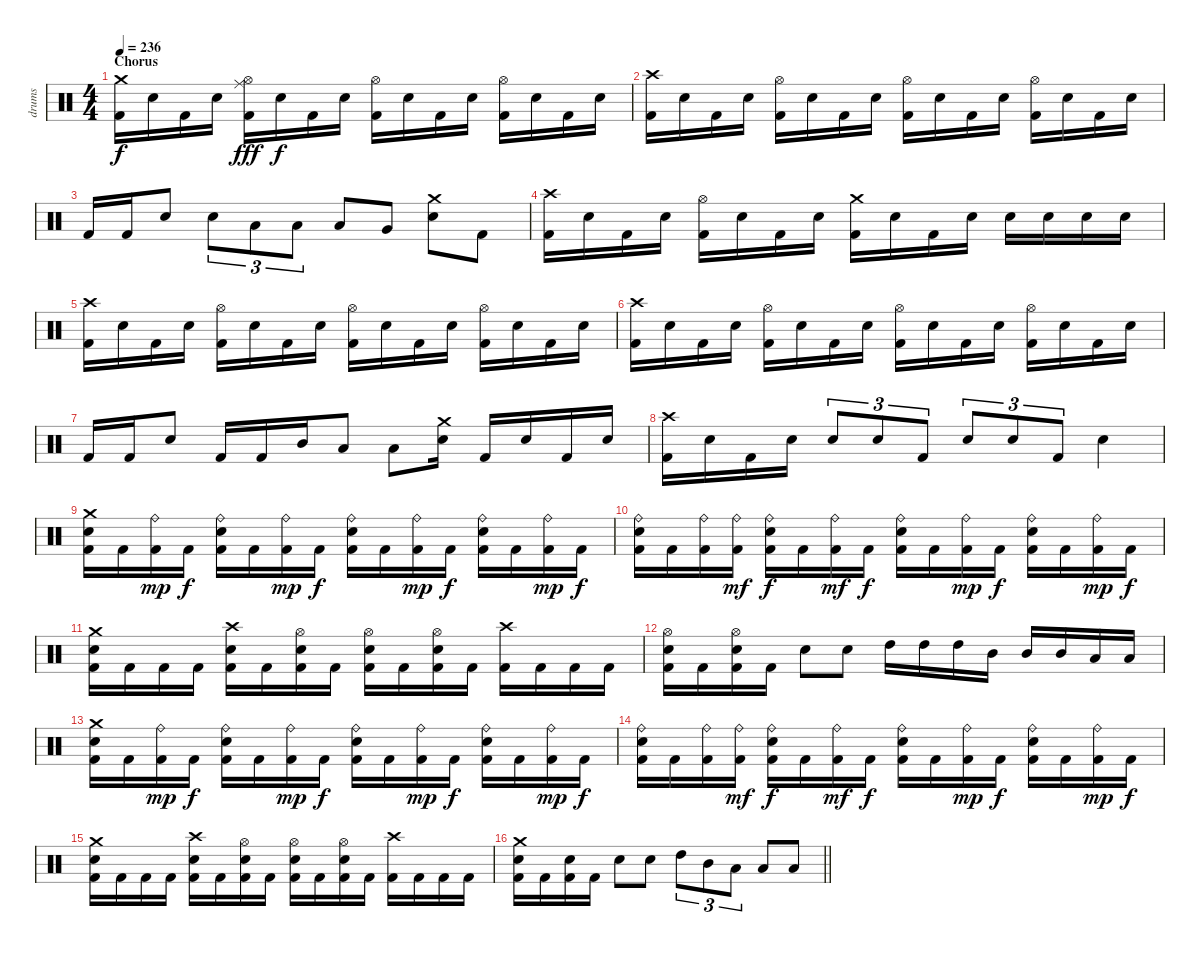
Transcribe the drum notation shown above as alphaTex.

\track ("drums" "drums") {instrument percussion}
\staff {score}
\articulation defaults
\ts (4 4)
\section ("" "Chorus")
\tempo 236
\clef neutral
\ks c
("Crash medium (hit)" "Kick (hit) 2").16{dy f} "Electric Snare (hit)".16 "Kick (hit) 2".16 "Electric Snare (hit)".16 ("Hi-Hat (open)" "Ride (middle)" "Kick (hit) 2").16{dy fff} "Electric Snare (hit)".16{dy f} "Kick (hit) 2".16 "Electric Snare (hit)".16 ("Hi-Hat (open)" "Kick (hit) 2").16 "Electric Snare (hit)".16 "Kick (hit) 2".16 "Electric Snare (hit)".16 ("Hi-Hat (open)" "Kick (hit) 2").16 "Electric Snare (hit)".16 "Kick (hit) 2".16 "Electric Snare (hit)".16 |
("Crash high (hit)" "Kick (hit) 2").16 "Electric Snare (hit)".16 "Kick (hit) 2".16 "Electric Snare (hit)".16 ("Hi-Hat (open)" "Kick (hit) 2").16 "Electric Snare (hit)".16 "Kick (hit) 2".16 "Electric Snare (hit)".16 ("Hi-Hat (open)" "Kick (hit) 2").16 "Electric Snare (hit)".16 "Kick (hit) 2".16 "Electric Snare (hit)".16 ("Hi-Hat (open)" "Kick (hit) 2").16 "Electric Snare (hit)".16 "Kick (hit) 2".16 "Electric Snare (hit)".16 |
"Kick (hit) 2".16 "Kick (hit) 2".16 "Electric Snare (hit)".8 "Electric Snare (hit)".8{tu (3 2)} "Low Tom (hit)".8{tu (3 2)} "Low Tom (hit)".8{tu (3 2)} "Low Tom (hit)".8 "Very Low Tom (hit)".8 ("Crash medium (hit)" "Electric Snare (hit)").8 "Kick (hit) 2".8 |
("Crash high (hit)" "Kick (hit) 2").16 "Electric Snare (hit)".16 "Kick (hit) 2".16 "Electric Snare (hit)".16 ("Hi-Hat (open)" "Kick (hit) 2").16 "Electric Snare (hit)".16 "Kick (hit) 2".16 "Electric Snare (hit)".16 ("Crash medium (hit)" "Kick (hit) 2").16 "Electric Snare (hit)".16 "Kick (hit) 2".16 "Electric Snare (hit)".16 "Electric Snare (hit)".16 "Electric Snare (hit)".16 "Electric Snare (hit)".16 "Electric Snare (hit)".16 |
("Crash high (hit)" "Kick (hit) 2").16 "Electric Snare (hit)".16 "Kick (hit) 2".16 "Electric Snare (hit)".16 ("Hi-Hat (open)" "Kick (hit) 2").16 "Electric Snare (hit)".16 "Kick (hit) 2".16 "Electric Snare (hit)".16 ("Hi-Hat (open)" "Kick (hit) 2").16 "Electric Snare (hit)".16 "Kick (hit) 2".16 "Electric Snare (hit)".16 ("Hi-Hat (open)" "Kick (hit) 2").16 "Electric Snare (hit)".16 "Kick (hit) 2".16 "Electric Snare (hit)".16 |
("Crash high (hit)" "Kick (hit) 2").16 "Electric Snare (hit)".16 "Kick (hit) 2".16 "Electric Snare (hit)".16 ("Hi-Hat (open)" "Kick (hit) 2").16 "Electric Snare (hit)".16 "Kick (hit) 2".16 "Electric Snare (hit)".16 ("Hi-Hat (open)" "Kick (hit) 2").16 "Electric Snare (hit)".16 "Kick (hit) 2".16 "Electric Snare (hit)".16 ("Hi-Hat (open)" "Kick (hit) 2").16 "Electric Snare (hit)".16 "Kick (hit) 2".16 "Electric Snare (hit)".16 |
"Kick (hit) 2".16 "Kick (hit) 2".16 "Electric Snare (hit)".8 "Kick (hit) 2".16 "Kick (hit) 2".16 "Mid Tom (hit)".16 "Low Tom (hit)".8 "Low Tom (hit)".8 ("Crash medium (hit)" "Electric Snare (hit)").16 "Kick (hit) 2".16 "Electric Snare (hit)".16 "Kick (hit) 2".16 "Electric Snare (hit)".16 |
("Crash high (hit)" "Kick (hit) 2").16 "Electric Snare (hit)".16 "Kick (hit) 2".16 "Electric Snare (hit)".16 "Electric Snare (hit)".8{tu (3 2)} "Electric Snare (hit)".8{tu (3 2)} "Kick (hit) 2".8{tu (3 2)} "Electric Snare (hit)".8{tu (3 2)} "Electric Snare (hit)".8{tu (3 2)} "Kick (hit) 2".8{tu (3 2)} "Electric Snare (hit)".4 |
("Crash medium (hit)" "Electric Snare (hit)" "Kick (hit) 2").16 "Kick (hit) 2".16 ("Ride (bell)" "Kick (hit) 2").16{dy mp} "Kick (hit) 2".16{dy f} ("Ride (bell)" "Electric Snare (hit)" "Kick (hit) 2").16 "Kick (hit) 2".16 ("Ride (bell)" "Kick (hit) 2").16{dy mp} "Kick (hit) 2".16{dy f} ("Ride (bell)" "Electric Snare (hit)" "Kick (hit) 2").16 "Kick (hit) 2".16 ("Ride (bell)" "Kick (hit) 2").16{dy mp} "Kick (hit) 2".16{dy f} ("Ride (bell)" "Electric Snare (hit)" "Kick (hit) 2").16 "Kick (hit) 2".16 ("Ride (bell)" "Kick (hit) 2").16{dy mp} "Kick (hit) 2".16{dy f} |
("Ride (bell)" "Electric Snare (hit)" "Kick (hit) 2").16 "Kick (hit) 2".16 ("Ride (bell)" "Kick (hit) 2").16 ("Ride (bell)" "Kick (hit) 2").16{dy mf} ("Ride (bell)" "Electric Snare (hit)" "Kick (hit) 2").16{dy f} "Kick (hit) 2".16 ("Ride (bell)" "Kick (hit) 2").16{dy mf} "Kick (hit) 2".16{dy f} ("Ride (bell)" "Electric Snare (hit)" "Kick (hit) 2").16 "Kick (hit) 2".16 ("Ride (bell)" "Kick (hit) 2").16{dy mp} "Kick (hit) 2".16{dy f} ("Ride (bell)" "Electric Snare (hit)" "Kick (hit) 2").16 "Kick (hit) 2".16 ("Ride (bell)" "Kick (hit) 2").16{dy mp} "Kick (hit) 2".16{dy f} |
("Crash medium (hit)" "Electric Snare (hit)" "Kick (hit) 2").16 "Kick (hit) 2".16 "Kick (hit) 2".16 "Kick (hit) 2".16 ("Crash high (hit)" "Electric Snare (hit)" "Kick (hit) 2").16 "Kick (hit) 2".16 ("Hi-Hat (open)" "Electric Snare (hit)" "Kick (hit) 2").16 "Kick (hit) 2".16 ("Hi-Hat (open)" "Electric Snare (hit)" "Kick (hit) 2").16 "Kick (hit) 2".16 ("Hi-Hat (open)" "Electric Snare (hit)" "Kick (hit) 2").16 "Kick (hit) 2".16 ("Crash high (hit)" "Kick (hit) 2").16 "Kick (hit) 2".16 "Kick (hit) 2".16 "Kick (hit) 2".16 |
("Hi-Hat (open)" "Electric Snare (hit)" "Kick (hit) 2").16 "Kick (hit) 2".16 ("Hi-Hat (open)" "Electric Snare (hit)" "Kick (hit) 2").16 "Kick (hit) 2".16 "Electric Snare (hit)".8 "Electric Snare (hit)".8 "High Tom (hit)".16 "High Tom (hit)".16 "High Tom (hit)".16 "Mid Tom (hit)".16 "Mid Tom (hit)".16 "Mid Tom (hit)".16 "Low Tom (hit)".16 "Low Tom (hit)".16 |
("Crash medium (hit)" "Electric Snare (hit)" "Kick (hit) 2").16 "Kick (hit) 2".16 ("Ride (bell)" "Kick (hit) 2").16{dy mp} "Kick (hit) 2".16{dy f} ("Ride (bell)" "Electric Snare (hit)" "Kick (hit) 2").16 "Kick (hit) 2".16 ("Ride (bell)" "Kick (hit) 2").16{dy mp} "Kick (hit) 2".16{dy f} ("Ride (bell)" "Electric Snare (hit)" "Kick (hit) 2").16 "Kick (hit) 2".16 ("Ride (bell)" "Kick (hit) 2").16{dy mp} "Kick (hit) 2".16{dy f} ("Ride (bell)" "Electric Snare (hit)" "Kick (hit) 2").16 "Kick (hit) 2".16 ("Ride (bell)" "Kick (hit) 2").16{dy mp} "Kick (hit) 2".16{dy f} |
("Ride (bell)" "Electric Snare (hit)" "Kick (hit) 2").16 "Kick (hit) 2".16 ("Ride (bell)" "Kick (hit) 2").16 ("Ride (bell)" "Kick (hit) 2").16{dy mf} ("Ride (bell)" "Electric Snare (hit)" "Kick (hit) 2").16{dy f} "Kick (hit) 2".16 ("Ride (bell)" "Kick (hit) 2").16{dy mf} "Kick (hit) 2".16{dy f} ("Ride (bell)" "Electric Snare (hit)" "Kick (hit) 2").16 "Kick (hit) 2".16 ("Ride (bell)" "Kick (hit) 2").16{dy mp} "Kick (hit) 2".16{dy f} ("Ride (bell)" "Electric Snare (hit)" "Kick (hit) 2").16 "Kick (hit) 2".16 ("Ride (bell)" "Kick (hit) 2").16{dy mp} "Kick (hit) 2".16{dy f} |
("Crash medium (hit)" "Electric Snare (hit)" "Kick (hit) 2").16 "Kick (hit) 2".16 "Kick (hit) 2".16 "Kick (hit) 2".16 ("Crash high (hit)" "Electric Snare (hit)" "Kick (hit) 2").16 "Kick (hit) 2".16 ("Hi-Hat (open)" "Electric Snare (hit)" "Kick (hit) 2").16 "Kick (hit) 2".16 ("Hi-Hat (open)" "Electric Snare (hit)" "Kick (hit) 2").16 "Kick (hit) 2".16 ("Hi-Hat (open)" "Electric Snare (hit)" "Kick (hit) 2").16 "Kick (hit) 2".16 ("Crash high (hit)" "Kick (hit) 2").16 "Kick (hit) 2".16 "Kick (hit) 2".16 "Kick (hit) 2".16 |
\barLineRight lightlight
("Crash medium (hit)" "Electric Snare (hit)" "Kick (hit) 2").16 "Kick (hit) 2".16 ("Electric Snare (hit)" "Kick (hit) 2").16 "Kick (hit) 2".16 "Electric Snare (hit)".8 "Electric Snare (hit)".8 "High Tom (hit)".8{tu (3 2)} "Mid Tom (hit)".8{tu (3 2)} "Low Tom (hit)".8{tu (3 2)} "Low Tom (hit)".8 "Low Tom (hit)".8
